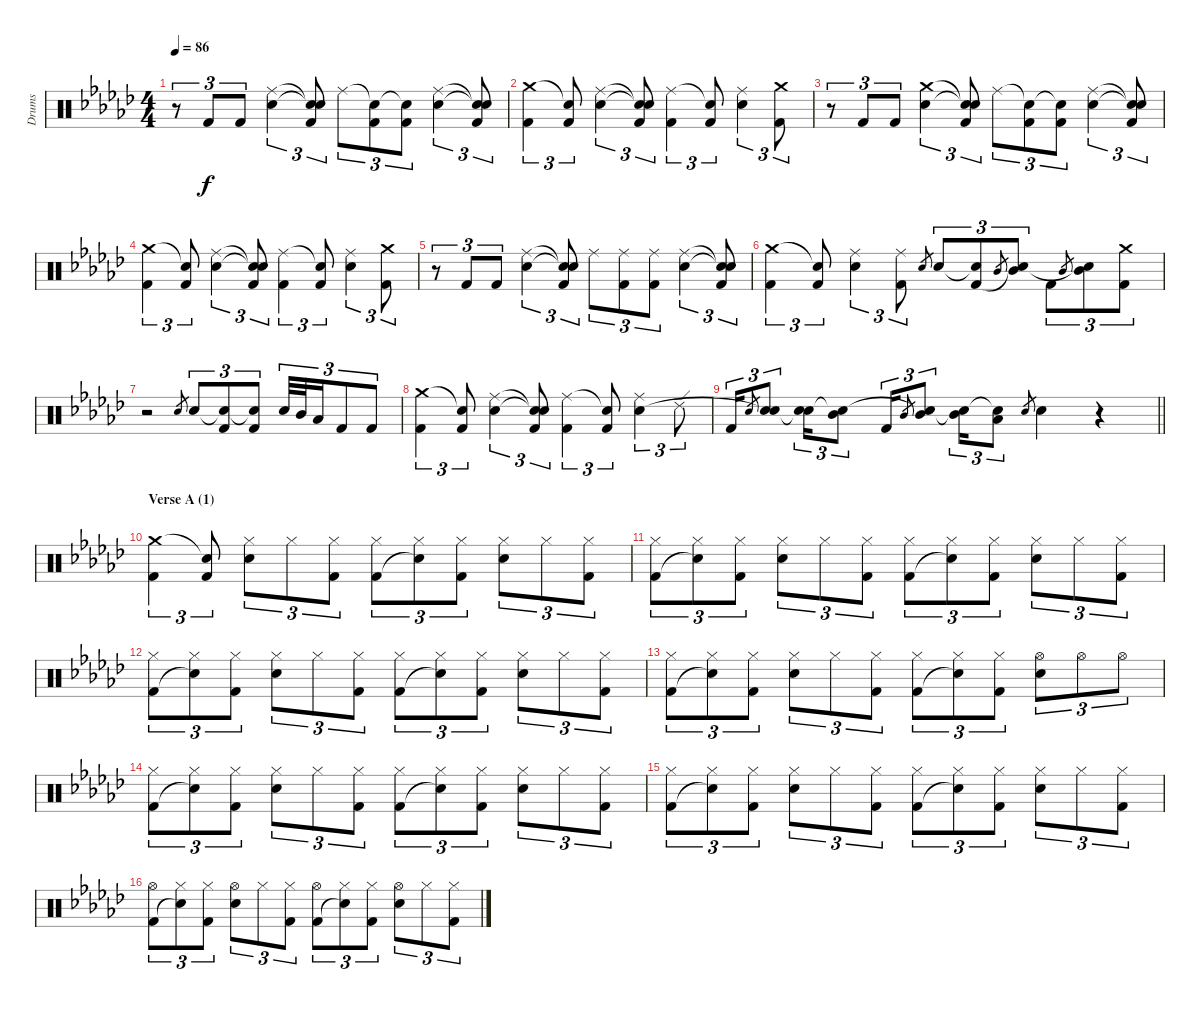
\track ("Drums" "Drums") {instrument percussion}
\staff {score}
\articulation defaults
\ts (4 4)
\tempo 86
\clef neutral
\ks ebminor
r.8{tu (3 2) dy f} "Kick (hit) 2".8{tu (3 2)} "Kick (hit) 2".8{tu (3 2)} ("Ride (middle)" "Electric Snare (hit)").4{tu (3 2)} ("Snare (hit)"{t} "Snare (hit)"{t} "Kick (hit) 2").8{tu (3 2)} "Ride (middle)".8{tu (3 2)} ("Snare (hit)"{t} "Kick (hit) 2").8{tu (3 2)} ("Snare (hit)"{t} "Kick (hit) 2").8{tu (3 2)} ("Ride (middle)" "Electric Snare (hit)").4{tu (3 2)} ("Snare (hit)"{t} "Snare (hit)"{t} "Kick (hit) 2").8{tu (3 2)} |
("Crash medium (hit)" "Kick (hit) 2").4{tu (3 2)} ("Snare (hit)"{t} "Kick (hit) 2").8{tu (3 2)} ("Ride (middle)" "Electric Snare (hit)").4{tu (3 2)} ("Snare (hit)"{t} "Snare (hit)"{t} "Kick (hit) 2").8{tu (3 2)} ("Ride (middle)" "Kick (hit) 2").4{tu (3 2)} ("Snare (hit)"{t} "Kick (hit) 2").8{tu (3 2)} ("Ride (middle)" "Electric Snare (hit)").4{tu (3 2)} ("Crash medium (hit)" "Kick (hit) 2").8{tu (3 2)} |
r.8{tu (3 2)} "Kick (hit) 2".8{tu (3 2)} "Kick (hit) 2".8{tu (3 2)} ("Crash medium (hit)" "Electric Snare (hit)").4{tu (3 2)} ("Snare (hit)"{t} "Snare (hit)"{t} "Kick (hit) 2").8{tu (3 2)} "Ride (middle)".8{tu (3 2)} ("Snare (hit)"{t} "Kick (hit) 2").8{tu (3 2)} ("Snare (hit)"{t} "Kick (hit) 2").8{tu (3 2)} ("Ride (middle)" "Electric Snare (hit)").4{tu (3 2)} ("Snare (hit)"{t} "Snare (hit)"{t} "Kick (hit) 2").8{tu (3 2)} |
("Crash medium (hit)" "Kick (hit) 2").4{tu (3 2)} ("Snare (hit)"{t} "Kick (hit) 2").8{tu (3 2)} ("Ride (middle)" "Electric Snare (hit)").4{tu (3 2)} ("Snare (hit)"{t} "Snare (hit)"{t} "Kick (hit) 2").8{tu (3 2)} ("Ride (middle)" "Kick (hit) 2").4{tu (3 2)} ("Snare (hit)"{t} "Kick (hit) 2").8{tu (3 2)} ("Ride (middle)" "Electric Snare (hit)").4{tu (3 2)} ("Crash medium (hit)" "Kick (hit) 2").8{tu (3 2)} |
r.8{tu (3 2)} "Kick (hit) 2".8{tu (3 2)} "Kick (hit) 2".8{tu (3 2)} ("Ride (middle)" "Electric Snare (hit)").4{tu (3 2)} ("Snare (hit)"{t} "Snare (hit)"{t} "Kick (hit) 2").8{tu (3 2)} "Ride (middle)".8{tu (3 2)} ("Ride (middle)" "Kick (hit) 2").8{tu (3 2)} ("Ride (middle)" "Kick (hit) 2").8{tu (3 2)} ("Ride (middle)" "Electric Snare (hit)").4{tu (3 2)} ("Snare (hit)"{t} "Snare (hit)"{t} "Kick (hit) 2").8{tu (3 2)} |
("Crash medium (hit)" "Kick (hit) 2").4{tu (3 2)} ("Snare (hit)"{t} "Kick (hit) 2").8{tu (3 2)} ("Ride (middle)" "Electric Snare (hit)").4{tu (3 2)} ("Ride (middle)" "Kick (hit) 2").8{tu (3 2)} "Electric Snare (hit)".8{gr} "Electric Snare (hit)".8{tu (3 2)} ("Snare (hit)"{t} "Kick (hit) 2").8{tu (3 2)} "Mid Tom (hit)".8{gr} ("Mid Tom (hit)" "Snare (hit)"{t}).8{tu (3 2)} "Kick (hit) 2".8{tu (3 2)} "Mid Tom (hit)".8{gr} ("Mid Tom (hit)" "Snare (hit)"{t}).8{tu (3 2)} ("Crash medium (hit)" "Kick (hit) 2").8{tu (3 2)} |
r.2 "Electric Snare (hit)".8{gr} "Electric Snare (hit)".8{tu (3 2)} ("Snare (hit)"{t} "Kick (hit) 2").8{tu (3 2)} ("Snare (hit)"{t} "Kick (hit) 2").8{tu (3 2)} "Electric Snare (hit)".32{tu (3 2)} "Mid Tom (hit)".32{tu (3 2)} "Low Floor Tom (hit)".16{tu (3 2)} "Kick (hit) 2".8{tu (3 2)} "Kick (hit) 2".8{tu (3 2)} |
("Crash medium (hit)" "Kick (hit) 2").4{tu (3 2)} ("Snare (hit)"{t} "Kick (hit) 2").8{tu (3 2)} ("Ride (middle)" "Electric Snare (hit)").4{tu (3 2)} ("Snare (hit)"{t} "Snare (hit)"{t} "Kick (hit) 2").8{tu (3 2)} ("Ride (middle)" "Kick (hit) 2").4{tu (3 2)} ("Snare (hit)"{t} "Kick (hit) 2").8{tu (3 2)} ("Ride (middle)" "Electric Snare (hit)").4{tu (3 2)} "Ride (edge) 2".8{tu (3 2)} |
\barLineRight lightlight "Kick (hit) 2".16{tu (3 2)} "Electric Snare (hit)".8{gr}
("Electric Snare (hit)" "Snare (hit)"{t}).8{tu (3 2)} ("Electric Snare (hit)" "Snare (hit)"{t}).16{tu (3 2)} ("Mid Tom (hit)" "Snare (hit)"{t}).8{tu (3 2)} "Kick (hit) 2".16{tu (3 2)} "Mid Tom (hit)".8{gr} ("Mid Tom (hit)" "Snare (hit)"{t}).8{tu (3 2)} ("Mid Tom (hit)" "Snare (hit)"{t}).16{tu (3 2)} ("Low Floor Tom (hit)" "Snare (hit)"{t}).8{tu (3 2)} "Electric Snare (hit)".8{gr} "Electric Snare (hit)".4 r.4 |
\section ("" "Verse A (1)")
("Crash medium (hit)" "Kick (hit) 2").4{tu (3 2)} ("Snare (hit)"{t} "Kick (hit) 2").8{tu (3 2)} ("Hi-Hat (closed)" "Electric Snare (hit)").8{tu (3 2)} "Hi-Hat (closed)".8{tu (3 2)} ("Hi-Hat (closed)" "Kick (hit) 2").8{tu (3 2)} ("Hi-Hat (closed)" "Kick (hit) 2").8{tu (3 2)} ("Hi-Hat (closed)" "Snare (hit)"{t}).8{tu (3 2)} ("Hi-Hat (closed)" "Kick (hit) 2").8{tu (3 2)} ("Hi-Hat (closed)" "Electric Snare (hit)").8{tu (3 2)} "Hi-Hat (closed)".8{tu (3 2)} ("Hi-Hat (closed)" "Kick (hit) 2").8{tu (3 2)} |
("Hi-Hat (closed)" "Kick (hit) 2").8{tu (3 2)} ("Hi-Hat (closed)" "Snare (hit)"{t}).8{tu (3 2)} ("Hi-Hat (closed)" "Kick (hit) 2").8{tu (3 2)} ("Hi-Hat (closed)" "Electric Snare (hit)").8{tu (3 2)} "Hi-Hat (closed)".8{tu (3 2)} ("Hi-Hat (closed)" "Kick (hit) 2").8{tu (3 2)} ("Hi-Hat (closed)" "Kick (hit) 2").8{tu (3 2)} ("Hi-Hat (closed)" "Snare (hit)"{t}).8{tu (3 2)} ("Hi-Hat (closed)" "Kick (hit) 2").8{tu (3 2)} ("Hi-Hat (closed)" "Electric Snare (hit)").8{tu (3 2)} "Hi-Hat (closed)".8{tu (3 2)} ("Hi-Hat (closed)" "Kick (hit) 2").8{tu (3 2)} |
("Hi-Hat (closed)" "Kick (hit) 2").8{tu (3 2)} ("Hi-Hat (closed)" "Snare (hit)"{t}).8{tu (3 2)} ("Hi-Hat (closed)" "Kick (hit) 2").8{tu (3 2)} ("Hi-Hat (closed)" "Electric Snare (hit)").8{tu (3 2)} "Hi-Hat (closed)".8{tu (3 2)} ("Hi-Hat (closed)" "Kick (hit) 2").8{tu (3 2)} ("Hi-Hat (closed)" "Kick (hit) 2").8{tu (3 2)} ("Hi-Hat (closed)" "Snare (hit)"{t}).8{tu (3 2)} ("Hi-Hat (closed)" "Kick (hit) 2").8{tu (3 2)} ("Hi-Hat (closed)" "Electric Snare (hit)").8{tu (3 2)} "Hi-Hat (closed)".8{tu (3 2)} ("Hi-Hat (closed)" "Kick (hit) 2").8{tu (3 2)} |
("Hi-Hat (closed)" "Kick (hit) 2").8{tu (3 2)} ("Hi-Hat (closed)" "Snare (hit)"{t}).8{tu (3 2)} ("Hi-Hat (closed)" "Kick (hit) 2").8{tu (3 2)} ("Hi-Hat (closed)" "Electric Snare (hit)").8{tu (3 2)} "Hi-Hat (closed)".8{tu (3 2)} ("Hi-Hat (closed)" "Kick (hit) 2").8{tu (3 2)} ("Hi-Hat (closed)" "Kick (hit) 2").8{tu (3 2)} ("Hi-Hat (closed)" "Snare (hit)"{t}).8{tu (3 2)} ("Hi-Hat (closed)" "Kick (hit) 2").8{tu (3 2)} ("Hi-Hat (open)" "Electric Snare (hit)").8{tu (3 2)} "Hi-Hat (open)".8{tu (3 2)} "Hi-Hat (open)".8{tu (3 2)} |
("Hi-Hat (closed)" "Kick (hit) 2").8{tu (3 2)} ("Hi-Hat (closed)" "Snare (hit)"{t}).8{tu (3 2)} ("Hi-Hat (closed)" "Kick (hit) 2").8{tu (3 2)} ("Hi-Hat (closed)" "Electric Snare (hit)").8{tu (3 2)} "Hi-Hat (closed)".8{tu (3 2)} ("Hi-Hat (closed)" "Kick (hit) 2").8{tu (3 2)} ("Hi-Hat (closed)" "Kick (hit) 2").8{tu (3 2)} ("Hi-Hat (closed)" "Snare (hit)"{t}).8{tu (3 2)} ("Hi-Hat (closed)" "Kick (hit) 2").8{tu (3 2)} ("Hi-Hat (closed)" "Electric Snare (hit)").8{tu (3 2)} "Hi-Hat (closed)".8{tu (3 2)} ("Hi-Hat (closed)" "Kick (hit) 2").8{tu (3 2)} |
("Hi-Hat (closed)" "Kick (hit) 2").8{tu (3 2)} ("Hi-Hat (closed)" "Snare (hit)"{t}).8{tu (3 2)} ("Hi-Hat (closed)" "Kick (hit) 2").8{tu (3 2)} ("Hi-Hat (closed)" "Electric Snare (hit)").8{tu (3 2)} "Hi-Hat (closed)".8{tu (3 2)} ("Hi-Hat (closed)" "Kick (hit) 2").8{tu (3 2)} ("Hi-Hat (closed)" "Kick (hit) 2").8{tu (3 2)} ("Hi-Hat (closed)" "Snare (hit)"{t}).8{tu (3 2)} ("Hi-Hat (closed)" "Kick (hit) 2").8{tu (3 2)} ("Hi-Hat (closed)" "Electric Snare (hit)").8{tu (3 2)} "Hi-Hat (closed)".8{tu (3 2)} ("Hi-Hat (closed)" "Kick (hit) 2").8{tu (3 2)} |
("Hi-Hat (open)" "Kick (hit) 2").8{tu (3 2)} ("Hi-Hat (closed)" "Snare (hit)"{t}).8{tu (3 2)} ("Hi-Hat (closed)" "Kick (hit) 2").8{tu (3 2)} ("Hi-Hat (open)" "Electric Snare (hit)").8{tu (3 2)} "Hi-Hat (closed)".8{tu (3 2)} ("Hi-Hat (closed)" "Kick (hit) 2").8{tu (3 2)} ("Hi-Hat (open)" "Kick (hit) 2").8{tu (3 2)} ("Hi-Hat (closed)" "Snare (hit)"{t}).8{tu (3 2)} ("Hi-Hat (closed)" "Kick (hit) 2").8{tu (3 2)} ("Hi-Hat (open)" "Electric Snare (hit)").8{tu (3 2)} "Hi-Hat (closed)".8{tu (3 2)} ("Hi-Hat (closed)" "Kick (hit) 2").8{tu (3 2)}
